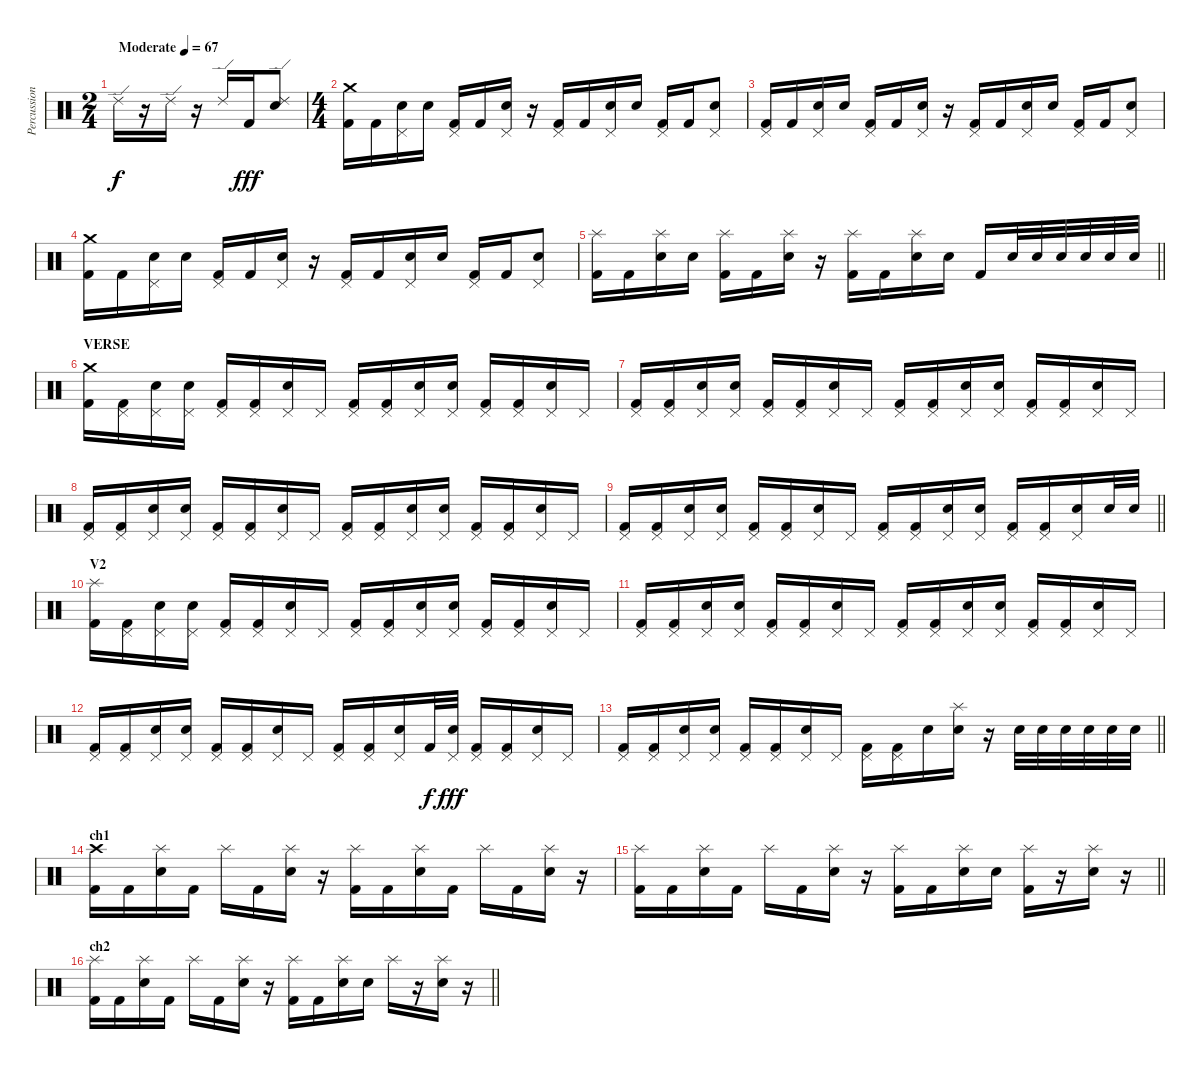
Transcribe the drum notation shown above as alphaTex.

\track ("Percussion" "Percussion") {instrument percussion}
\staff {score}
\articulation defaults
\ts (2 4)
\tempo (67 "Moderate")
\clef neutral
\ks c "Ride (edge) 2".16{dy f}
r.16 "Ride (edge) 2".16 r.16 "Ride (edge) 2".16 "Kick (hit) 2".16{dy fff} ("Ride (edge) 2" "Snare (hit) 2").8 |
\ts (4 4)
("Crash medium (hit)" "Kick (hit) 2").16 "Kick (hit) 2".16 ("Pedal Hi-Hat (hit)" "Snare (hit) 2").16 "Snare (hit) 2".16 ("Pedal Hi-Hat (hit)" "Kick (hit) 2").16 "Kick (hit) 2".16 ("Pedal Hi-Hat (hit)" "Snare (hit) 2").16 r.16 ("Pedal Hi-Hat (hit)" "Kick (hit) 2").16 "Kick (hit) 2".16 ("Pedal Hi-Hat (hit)" "Snare (hit) 2").16 "Snare (hit) 2".16 ("Pedal Hi-Hat (hit)" "Kick (hit) 2").16 "Kick (hit) 2".16 ("Pedal Hi-Hat (hit)" "Snare (hit) 2").8 |
("Pedal Hi-Hat (hit)" "Kick (hit) 2").16 "Kick (hit) 2".16 ("Pedal Hi-Hat (hit)" "Snare (hit) 2").16 "Snare (hit) 2".16 ("Pedal Hi-Hat (hit)" "Kick (hit) 2").16 "Kick (hit) 2".16 ("Pedal Hi-Hat (hit)" "Snare (hit) 2").16 r.16 ("Pedal Hi-Hat (hit)" "Kick (hit) 2").16 "Kick (hit) 2".16 ("Pedal Hi-Hat (hit)" "Snare (hit) 2").16 "Snare (hit) 2".16 ("Pedal Hi-Hat (hit)" "Kick (hit) 2").16 "Kick (hit) 2".16 ("Pedal Hi-Hat (hit)" "Snare (hit) 2").8 |
("Crash medium (hit)" "Kick (hit) 2").16 "Kick (hit) 2".16 ("Pedal Hi-Hat (hit)" "Snare (hit) 2").16 "Snare (hit) 2".16 ("Pedal Hi-Hat (hit)" "Kick (hit) 2").16 "Kick (hit) 2".16 ("Pedal Hi-Hat (hit)" "Snare (hit) 2").16 r.16 ("Pedal Hi-Hat (hit)" "Kick (hit) 2").16 "Kick (hit) 2".16 ("Pedal Hi-Hat (hit)" "Snare (hit) 2").16 "Snare (hit) 2".16 ("Pedal Hi-Hat (hit)" "Kick (hit) 2").16 "Kick (hit) 2".16 ("Pedal Hi-Hat (hit)" "Snare (hit) 2").8 |
\barLineRight lightlight
("Splash (hit)" "Kick (hit) 2").16 "Kick (hit) 2".16 ("Splash (hit)" "Snare (hit) 2").16 "Snare (hit) 2".16 ("Splash (hit)" "Kick (hit) 2").16 "Kick (hit) 2".16 ("Splash (hit)" "Snare (hit) 2").16 r.16 ("Splash (hit)" "Kick (hit) 2").16 "Kick (hit) 2".16 ("Splash (hit)" "Snare (hit) 2").16 "Snare (hit) 2".16 "Kick (hit) 2".16 "Snare (hit) 2".32 "Snare (hit) 2".32 "Snare (hit) 2".32 "Snare (hit) 2".32 "Snare (hit) 2".32 "Snare (hit) 2".32 |
\section ("" "VERSE")
("Crash medium (hit)" "Kick (hit) 2").16 ("Pedal Hi-Hat (hit)" "Kick (hit) 2").16 ("Pedal Hi-Hat (hit)" "Snare (hit) 2").16 ("Pedal Hi-Hat (hit)" "Snare (hit) 2").16 ("Pedal Hi-Hat (hit)" "Kick (hit) 2").16 ("Pedal Hi-Hat (hit)" "Kick (hit) 2").16 ("Pedal Hi-Hat (hit)" "Snare (hit) 2").16 "Pedal Hi-Hat (hit)".16 ("Pedal Hi-Hat (hit)" "Kick (hit) 2").16 ("Pedal Hi-Hat (hit)" "Kick (hit) 2").16 ("Pedal Hi-Hat (hit)" "Snare (hit) 2").16 ("Pedal Hi-Hat (hit)" "Snare (hit) 2").16 ("Pedal Hi-Hat (hit)" "Kick (hit) 2").16 ("Pedal Hi-Hat (hit)" "Kick (hit) 2").16 ("Pedal Hi-Hat (hit)" "Snare (hit) 2").16 "Pedal Hi-Hat (hit)".16 |
("Pedal Hi-Hat (hit)" "Kick (hit) 2").16 ("Pedal Hi-Hat (hit)" "Kick (hit) 2").16 ("Pedal Hi-Hat (hit)" "Snare (hit) 2").16 ("Pedal Hi-Hat (hit)" "Snare (hit) 2").16 ("Pedal Hi-Hat (hit)" "Kick (hit) 2").16 ("Pedal Hi-Hat (hit)" "Kick (hit) 2").16 ("Pedal Hi-Hat (hit)" "Snare (hit) 2").16 "Pedal Hi-Hat (hit)".16 ("Pedal Hi-Hat (hit)" "Kick (hit) 2").16 ("Pedal Hi-Hat (hit)" "Kick (hit) 2").16 ("Pedal Hi-Hat (hit)" "Snare (hit) 2").16 ("Pedal Hi-Hat (hit)" "Snare (hit) 2").16 ("Pedal Hi-Hat (hit)" "Kick (hit) 2").16 ("Pedal Hi-Hat (hit)" "Kick (hit) 2").16 ("Pedal Hi-Hat (hit)" "Snare (hit) 2").16 "Pedal Hi-Hat (hit)".16 |
("Pedal Hi-Hat (hit)" "Kick (hit) 2").16 ("Pedal Hi-Hat (hit)" "Kick (hit) 2").16 ("Pedal Hi-Hat (hit)" "Electric Snare (hit)").16 ("Pedal Hi-Hat (hit)" "Electric Snare (hit)").16 ("Pedal Hi-Hat (hit)" "Kick (hit) 2").16 ("Pedal Hi-Hat (hit)" "Kick (hit) 2").16 ("Pedal Hi-Hat (hit)" "Electric Snare (hit)").16 "Pedal Hi-Hat (hit)".16 ("Pedal Hi-Hat (hit)" "Kick (hit) 2").16 ("Pedal Hi-Hat (hit)" "Kick (hit) 2").16 ("Pedal Hi-Hat (hit)" "Electric Snare (hit)").16 ("Pedal Hi-Hat (hit)" "Electric Snare (hit)").16 ("Pedal Hi-Hat (hit)" "Kick (hit) 2").16 ("Pedal Hi-Hat (hit)" "Kick (hit) 2").16 ("Pedal Hi-Hat (hit)" "Electric Snare (hit)").16 "Pedal Hi-Hat (hit)".16 |
\barLineRight lightlight
("Pedal Hi-Hat (hit)" "Kick (hit) 2").16 ("Pedal Hi-Hat (hit)" "Kick (hit) 2").16 ("Pedal Hi-Hat (hit)" "Electric Snare (hit)").16 ("Pedal Hi-Hat (hit)" "Electric Snare (hit)").16 ("Pedal Hi-Hat (hit)" "Kick (hit) 2").16 ("Pedal Hi-Hat (hit)" "Kick (hit) 2").16 ("Pedal Hi-Hat (hit)" "Electric Snare (hit)").16 "Pedal Hi-Hat (hit)".16 ("Pedal Hi-Hat (hit)" "Kick (hit) 2").16 ("Pedal Hi-Hat (hit)" "Kick (hit) 2").16 ("Pedal Hi-Hat (hit)" "Electric Snare (hit)").16 ("Pedal Hi-Hat (hit)" "Electric Snare (hit)").16 ("Pedal Hi-Hat (hit)" "Kick (hit) 2").16 ("Pedal Hi-Hat (hit)" "Kick (hit) 2").16 ("Pedal Hi-Hat (hit)" "Electric Snare (hit)").16 "Electric Snare (hit)".32 "Electric Snare (hit)".32 |
\section ("" "V2")
("Splash (hit)" "Kick (hit) 2").16 ("Pedal Hi-Hat (hit)" "Kick (hit) 2").16 ("Pedal Hi-Hat (hit)" "Snare (hit) 2").16 ("Pedal Hi-Hat (hit)" "Snare (hit) 2").16 ("Pedal Hi-Hat (hit)" "Kick (hit) 2").16 ("Pedal Hi-Hat (hit)" "Kick (hit) 2").16 ("Pedal Hi-Hat (hit)" "Snare (hit) 2").16 "Pedal Hi-Hat (hit)".16 ("Pedal Hi-Hat (hit)" "Kick (hit) 2").16 ("Pedal Hi-Hat (hit)" "Kick (hit) 2").16 ("Pedal Hi-Hat (hit)" "Snare (hit) 2").16 ("Pedal Hi-Hat (hit)" "Snare (hit) 2").16 ("Pedal Hi-Hat (hit)" "Kick (hit) 2").16 ("Pedal Hi-Hat (hit)" "Kick (hit) 2").16 ("Pedal Hi-Hat (hit)" "Snare (hit) 2").16 "Pedal Hi-Hat (hit)".16 |
("Pedal Hi-Hat (hit)" "Kick (hit) 2").16 ("Pedal Hi-Hat (hit)" "Kick (hit) 2").16 ("Pedal Hi-Hat (hit)" "Electric Snare (hit)").16 ("Pedal Hi-Hat (hit)" "Electric Snare (hit)").16 ("Pedal Hi-Hat (hit)" "Kick (hit) 2").16 ("Pedal Hi-Hat (hit)" "Kick (hit) 2").16 ("Pedal Hi-Hat (hit)" "Electric Snare (hit)").16 "Pedal Hi-Hat (hit)".16 ("Pedal Hi-Hat (hit)" "Kick (hit) 2").16 ("Pedal Hi-Hat (hit)" "Kick (hit) 2").16 ("Pedal Hi-Hat (hit)" "Electric Snare (hit)").16 ("Pedal Hi-Hat (hit)" "Electric Snare (hit)").16 ("Pedal Hi-Hat (hit)" "Kick (hit) 2").16 ("Pedal Hi-Hat (hit)" "Kick (hit) 2").16 ("Pedal Hi-Hat (hit)" "Electric Snare (hit)").16 "Pedal Hi-Hat (hit)".16 |
("Pedal Hi-Hat (hit)" "Kick (hit) 2").16 ("Pedal Hi-Hat (hit)" "Kick (hit) 2").16 ("Pedal Hi-Hat (hit)" "Electric Snare (hit)").16 ("Pedal Hi-Hat (hit)" "Electric Snare (hit)").16 ("Pedal Hi-Hat (hit)" "Kick (hit) 2").16 ("Pedal Hi-Hat (hit)" "Kick (hit) 2").16 ("Pedal Hi-Hat (hit)" "Electric Snare (hit)").16 "Pedal Hi-Hat (hit)".16 ("Pedal Hi-Hat (hit)" "Kick (hit) 2").16 ("Pedal Hi-Hat (hit)" "Kick (hit) 2").16 ("Pedal Hi-Hat (hit)" "Electric Snare (hit)").16 "Kick (hit) 2".32{dy f} ("Pedal Hi-Hat (hit)" "Electric Snare (hit)").32{dy fff} ("Pedal Hi-Hat (hit)" "Kick (hit) 2").16 ("Pedal Hi-Hat (hit)" "Kick (hit) 2").16 ("Pedal Hi-Hat (hit)" "Electric Snare (hit)").16 "Pedal Hi-Hat (hit)".16 |
\barLineRight lightlight
("Pedal Hi-Hat (hit)" "Kick (hit) 2").16 ("Pedal Hi-Hat (hit)" "Kick (hit) 2").16 ("Pedal Hi-Hat (hit)" "Snare (hit) 2").16 ("Pedal Hi-Hat (hit)" "Snare (hit) 2").16 ("Pedal Hi-Hat (hit)" "Kick (hit) 2").16 ("Pedal Hi-Hat (hit)" "Kick (hit) 2").16 ("Pedal Hi-Hat (hit)" "Snare (hit) 2").16 "Pedal Hi-Hat (hit)".16 ("Pedal Hi-Hat (hit)" "Kick (hit) 2").16 ("Pedal Hi-Hat (hit)" "Kick (hit) 2").16 "Snare (hit) 2".16 ("Splash (hit)" "Snare (hit) 2").16 r.16 "Snare (hit) 2".32 "Snare (hit) 2".32 "Snare (hit) 2".32 "Snare (hit) 2".32 "Snare (hit) 2".32 "Snare (hit) 2".32 |
\section ("" "ch1")
("Crash high (hit)" "Kick (hit) 2").16 "Kick (hit) 2".16 ("Splash (hit)" "Snare (hit) 2").16 "Kick (hit) 2".16 "Splash (hit)".16 "Kick (hit) 2".16 ("Splash (hit)" "Snare (hit) 2").16 r.16 ("Splash (hit)" "Kick (hit) 2").16 "Kick (hit) 2".16 ("Splash (hit)" "Snare (hit) 2").16 "Kick (hit) 2".16 "Splash (hit)".16 "Kick (hit) 2".16 ("Splash (hit)" "Snare (hit) 2").16 r.16 |
\barLineRight lightlight
("Splash (hit)" "Kick (hit) 2").16 "Kick (hit) 2".16 ("Splash (hit)" "Snare (hit) 2").16 "Kick (hit) 2".16 "Splash (hit)".16 "Kick (hit) 2".16 ("Splash (hit)" "Snare (hit) 2").16 r.16 ("Splash (hit)" "Kick (hit) 2").16 "Kick (hit) 2".16 ("Splash (hit)" "Snare (hit) 2").16 "Snare (hit) 2".16 ("Splash (hit)" "Kick (hit) 2").16 r.16 ("Splash (hit)" "Snare (hit) 2").16 r.16 |
\section ("" "ch2")
\barLineRight lightlight
("Splash (hit)" "Kick (hit) 2").16 "Kick (hit) 2".16 ("Splash (hit)" "Snare (hit) 2").16 "Kick (hit) 2".16 "Splash (hit)".16 "Kick (hit) 2".16 ("Splash (hit)" "Snare (hit) 2").16 r.16 ("Splash (hit)" "Kick (hit) 2").16 "Kick (hit) 2".16 ("Splash (hit)" "Snare (hit) 2").16 "Snare (hit) 2".16 "Splash (hit)".16 r.16 ("Splash (hit)" "Snare (hit) 2").16 r.16
